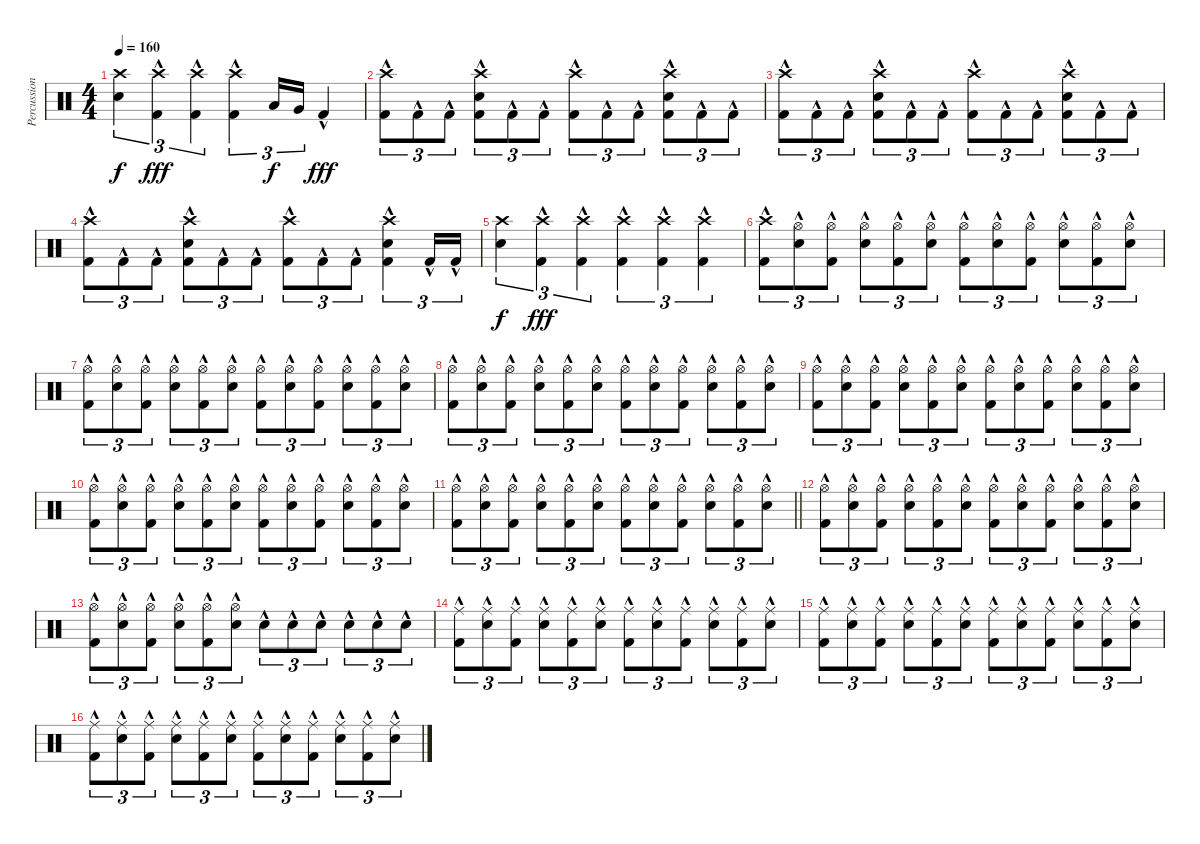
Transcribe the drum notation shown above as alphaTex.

\track ("Percussion" "Percussion") {instrument percussion}
\staff {score}
\articulation defaults
\ts (4 4)
\tempo 160
\clef neutral
\ks c
("Crash high (hit)" "Electric Snare (hit)").4{tu (3 2) dy f} ("Crash high (hit)" "Kick (hit) 2"{hac}).4{tu (3 2) dy fff} ("Crash high (hit)" "Kick (hit) 2"{hac}).4{tu (3 2)} ("Crash high (hit)" "Kick (hit) 2"{hac}).4{tu (3 2)} "Low Tom (hit)".16{tu (3 2) dy f} "Very Low Tom (hit)".16{tu (3 2)} "Kick (hit) 2"{hac}.4{dy fff} |
("Crash high (hit)" "Kick (hit) 2"{hac}).8{tu (3 2)} "Kick (hit) 2"{hac}.8{tu (3 2)} "Kick (hit) 2"{hac}.8{tu (3 2)} ("Crash high (hit)" "Electric Snare (hit)" "Kick (hit) 2"{hac}).8{tu (3 2)} "Kick (hit) 2"{hac}.8{tu (3 2)} "Kick (hit) 2"{hac}.8{tu (3 2)} ("Crash high (hit)" "Kick (hit) 2"{hac}).8{tu (3 2)} "Kick (hit) 2"{hac}.8{tu (3 2)} "Kick (hit) 2"{hac}.8{tu (3 2)} ("Crash high (hit)" "Electric Snare (hit)" "Kick (hit) 2"{hac}).8{tu (3 2)} "Kick (hit) 2"{hac}.8{tu (3 2)} "Kick (hit) 2"{hac}.8{tu (3 2)} |
("Crash high (hit)" "Kick (hit) 2"{hac}).8{tu (3 2)} "Kick (hit) 2"{hac}.8{tu (3 2)} "Kick (hit) 2"{hac}.8{tu (3 2)} ("Crash high (hit)" "Electric Snare (hit)" "Kick (hit) 2"{hac}).8{tu (3 2)} "Kick (hit) 2"{hac}.8{tu (3 2)} "Kick (hit) 2"{hac}.8{tu (3 2)} ("Crash high (hit)" "Kick (hit) 2"{hac}).8{tu (3 2)} "Kick (hit) 2"{hac}.8{tu (3 2)} "Kick (hit) 2"{hac}.8{tu (3 2)} ("Crash high (hit)" "Electric Snare (hit)" "Kick (hit) 2"{hac}).8{tu (3 2)} "Kick (hit) 2"{hac}.8{tu (3 2)} "Kick (hit) 2"{hac}.8{tu (3 2)} |
("Crash high (hit)" "Kick (hit) 2"{hac}).8{tu (3 2)} "Kick (hit) 2"{hac}.8{tu (3 2)} "Kick (hit) 2"{hac}.8{tu (3 2)} ("Crash high (hit)" "Electric Snare (hit)" "Kick (hit) 2"{hac}).8{tu (3 2)} "Kick (hit) 2"{hac}.8{tu (3 2)} "Kick (hit) 2"{hac}.8{tu (3 2)} ("Crash high (hit)" "Kick (hit) 2"{hac}).8{tu (3 2)} "Kick (hit) 2"{hac}.8{tu (3 2)} "Kick (hit) 2"{hac}.8{tu (3 2)} ("Crash high (hit)" "Electric Snare (hit)" "Kick (hit) 2"{hac}).4{tu (3 2)} "Kick (hit) 2"{hac}.16{tu (3 2)} "Kick (hit) 2"{hac}.16{tu (3 2)} |
("Crash high (hit)" "Electric Snare (hit)").4{tu (3 2) dy f} ("Crash high (hit)" "Kick (hit) 2"{hac}).4{tu (3 2) dy fff} ("Crash high (hit)" "Kick (hit) 2"{hac}).4{tu (3 2)} ("Crash high (hit)" "Kick (hit) 2"{hac}).4{tu (3 2)} ("Crash high (hit)" "Kick (hit) 2"{hac}).4{tu (3 2)} ("Crash high (hit)" "Kick (hit) 2"{hac}).4{tu (3 2)} |
("Crash high (hit)" "Kick (hit) 2"{hac}).8{tu (3 2)} ("Hi-Hat (open)" "Electric Snare (hit)"{hac}).8{tu (3 2)} ("Hi-Hat (open)" "Kick (hit) 2"{hac}).8{tu (3 2)} ("Hi-Hat (open)" "Electric Snare (hit)"{hac}).8{tu (3 2)} ("Hi-Hat (open)" "Kick (hit) 2"{hac}).8{tu (3 2)} ("Hi-Hat (open)" "Electric Snare (hit)"{hac}).8{tu (3 2)} ("Hi-Hat (open)" "Kick (hit) 2"{hac}).8{tu (3 2)} ("Hi-Hat (open)" "Electric Snare (hit)"{hac}).8{tu (3 2)} ("Hi-Hat (open)" "Kick (hit) 2"{hac}).8{tu (3 2)} ("Hi-Hat (open)" "Electric Snare (hit)"{hac}).8{tu (3 2)} ("Hi-Hat (open)" "Kick (hit) 2"{hac}).8{tu (3 2)} ("Hi-Hat (open)" "Electric Snare (hit)"{hac}).8{tu (3 2)} |
("Hi-Hat (open)" "Kick (hit) 2"{hac}).8{tu (3 2)} ("Hi-Hat (open)" "Electric Snare (hit)"{hac}).8{tu (3 2)} ("Hi-Hat (open)" "Kick (hit) 2"{hac}).8{tu (3 2)} ("Hi-Hat (open)" "Electric Snare (hit)"{hac}).8{tu (3 2)} ("Hi-Hat (open)" "Kick (hit) 2"{hac}).8{tu (3 2)} ("Hi-Hat (open)" "Electric Snare (hit)"{hac}).8{tu (3 2)} ("Hi-Hat (open)" "Kick (hit) 2"{hac}).8{tu (3 2)} ("Hi-Hat (open)" "Electric Snare (hit)"{hac}).8{tu (3 2)} ("Hi-Hat (open)" "Kick (hit) 2"{hac}).8{tu (3 2)} ("Hi-Hat (open)" "Electric Snare (hit)"{hac}).8{tu (3 2)} ("Hi-Hat (open)" "Kick (hit) 2"{hac}).8{tu (3 2)} ("Hi-Hat (open)" "Electric Snare (hit)"{hac}).8{tu (3 2)} |
("Hi-Hat (open)" "Kick (hit) 2"{hac}).8{tu (3 2)} ("Hi-Hat (open)" "Electric Snare (hit)"{hac}).8{tu (3 2)} ("Hi-Hat (open)" "Kick (hit) 2"{hac}).8{tu (3 2)} ("Hi-Hat (open)" "Electric Snare (hit)"{hac}).8{tu (3 2)} ("Hi-Hat (open)" "Kick (hit) 2"{hac}).8{tu (3 2)} ("Hi-Hat (open)" "Electric Snare (hit)"{hac}).8{tu (3 2)} ("Hi-Hat (open)" "Kick (hit) 2"{hac}).8{tu (3 2)} ("Hi-Hat (open)" "Electric Snare (hit)"{hac}).8{tu (3 2)} ("Hi-Hat (open)" "Kick (hit) 2"{hac}).8{tu (3 2)} ("Hi-Hat (open)" "Electric Snare (hit)"{hac}).8{tu (3 2)} ("Hi-Hat (open)" "Kick (hit) 2"{hac}).8{tu (3 2)} ("Hi-Hat (open)" "Electric Snare (hit)"{hac}).8{tu (3 2)} |
("Hi-Hat (open)" "Kick (hit) 2"{hac}).8{tu (3 2)} ("Hi-Hat (open)" "Electric Snare (hit)"{hac}).8{tu (3 2)} ("Hi-Hat (open)" "Kick (hit) 2"{hac}).8{tu (3 2)} ("Hi-Hat (open)" "Electric Snare (hit)"{hac}).8{tu (3 2)} ("Hi-Hat (open)" "Kick (hit) 2"{hac}).8{tu (3 2)} ("Hi-Hat (open)" "Electric Snare (hit)"{hac}).8{tu (3 2)} ("Hi-Hat (open)" "Kick (hit) 2"{hac}).8{tu (3 2)} ("Hi-Hat (open)" "Electric Snare (hit)"{hac}).8{tu (3 2)} ("Hi-Hat (open)" "Kick (hit) 2"{hac}).8{tu (3 2)} ("Hi-Hat (open)" "Electric Snare (hit)"{hac}).8{tu (3 2)} ("Hi-Hat (open)" "Kick (hit) 2"{hac}).8{tu (3 2)} ("Hi-Hat (open)" "Electric Snare (hit)"{hac}).8{tu (3 2)} |
("Hi-Hat (open)" "Kick (hit) 2"{hac}).8{tu (3 2)} ("Hi-Hat (open)" "Electric Snare (hit)"{hac}).8{tu (3 2)} ("Hi-Hat (open)" "Kick (hit) 2"{hac}).8{tu (3 2)} ("Hi-Hat (open)" "Electric Snare (hit)"{hac}).8{tu (3 2)} ("Hi-Hat (open)" "Kick (hit) 2"{hac}).8{tu (3 2)} ("Hi-Hat (open)" "Electric Snare (hit)"{hac}).8{tu (3 2)} ("Hi-Hat (open)" "Kick (hit) 2"{hac}).8{tu (3 2)} ("Hi-Hat (open)" "Electric Snare (hit)"{hac}).8{tu (3 2)} ("Hi-Hat (open)" "Kick (hit) 2"{hac}).8{tu (3 2)} ("Hi-Hat (open)" "Electric Snare (hit)"{hac}).8{tu (3 2)} ("Hi-Hat (open)" "Kick (hit) 2"{hac}).8{tu (3 2)} ("Hi-Hat (open)" "Electric Snare (hit)"{hac}).8{tu (3 2)} |
\barLineRight lightlight
("Hi-Hat (open)" "Kick (hit) 2"{hac}).8{tu (3 2)} ("Hi-Hat (open)" "Electric Snare (hit)"{hac}).8{tu (3 2)} ("Hi-Hat (open)" "Kick (hit) 2"{hac}).8{tu (3 2)} ("Hi-Hat (open)" "Electric Snare (hit)"{hac}).8{tu (3 2)} ("Hi-Hat (open)" "Kick (hit) 2"{hac}).8{tu (3 2)} ("Hi-Hat (open)" "Electric Snare (hit)"{hac}).8{tu (3 2)} ("Hi-Hat (open)" "Kick (hit) 2"{hac}).8{tu (3 2)} ("Hi-Hat (open)" "Electric Snare (hit)"{hac}).8{tu (3 2)} ("Hi-Hat (open)" "Kick (hit) 2"{hac}).8{tu (3 2)} ("Hi-Hat (open)" "Electric Snare (hit)"{hac}).8{tu (3 2)} ("Hi-Hat (open)" "Kick (hit) 2"{hac}).8{tu (3 2)} ("Hi-Hat (open)" "Electric Snare (hit)"{hac}).8{tu (3 2)} |
("Hi-Hat (open)" "Kick (hit) 2"{hac}).8{tu (3 2)} ("Hi-Hat (open)" "Electric Snare (hit)"{hac}).8{tu (3 2)} ("Hi-Hat (open)" "Kick (hit) 2"{hac}).8{tu (3 2)} ("Hi-Hat (open)" "Electric Snare (hit)"{hac}).8{tu (3 2)} ("Hi-Hat (open)" "Kick (hit) 2"{hac}).8{tu (3 2)} ("Hi-Hat (open)" "Electric Snare (hit)"{hac}).8{tu (3 2)} ("Hi-Hat (open)" "Kick (hit) 2"{hac}).8{tu (3 2)} ("Hi-Hat (open)" "Electric Snare (hit)"{hac}).8{tu (3 2)} ("Hi-Hat (open)" "Kick (hit) 2"{hac}).8{tu (3 2)} ("Hi-Hat (open)" "Electric Snare (hit)"{hac}).8{tu (3 2)} ("Hi-Hat (open)" "Kick (hit) 2"{hac}).8{tu (3 2)} ("Hi-Hat (open)" "Electric Snare (hit)"{hac}).8{tu (3 2)} |
("Hi-Hat (open)" "Kick (hit) 2"{hac}).8{tu (3 2)} ("Hi-Hat (open)" "Electric Snare (hit)"{hac}).8{tu (3 2)} ("Hi-Hat (open)" "Kick (hit) 2"{hac}).8{tu (3 2)} ("Hi-Hat (open)" "Electric Snare (hit)"{hac}).8{tu (3 2)} ("Hi-Hat (open)" "Kick (hit) 2"{hac}).8{tu (3 2)} ("Hi-Hat (open)" "Electric Snare (hit)"{hac}).8{tu (3 2)} "Electric Snare (hit)"{hac}.8{tu (3 2)} "Electric Snare (hit)"{hac}.8{tu (3 2)} "Electric Snare (hit)"{hac}.8{tu (3 2)} "Electric Snare (hit)"{hac}.8{tu (3 2)} "Electric Snare (hit)"{hac}.8{tu (3 2)} "Electric Snare (hit)"{hac}.8{tu (3 2)} |
("Ride (middle)" "Kick (hit) 2"{hac}).8{tu (3 2)} ("Ride (middle)" "Electric Snare (hit)"{hac}).8{tu (3 2)} ("Ride (middle)" "Kick (hit) 2"{hac}).8{tu (3 2)} ("Ride (middle)" "Electric Snare (hit)"{hac}).8{tu (3 2)} ("Ride (middle)" "Kick (hit) 2"{hac}).8{tu (3 2)} ("Ride (middle)" "Electric Snare (hit)"{hac}).8{tu (3 2)} ("Ride (middle)" "Kick (hit) 2"{hac}).8{tu (3 2)} ("Ride (middle)" "Electric Snare (hit)"{hac}).8{tu (3 2)} ("Ride (middle)" "Kick (hit) 2"{hac}).8{tu (3 2)} ("Ride (middle)" "Electric Snare (hit)"{hac}).8{tu (3 2)} ("Ride (middle)" "Kick (hit) 2"{hac}).8{tu (3 2)} ("Ride (middle)" "Electric Snare (hit)"{hac}).8{tu (3 2)} |
("Ride (middle)" "Kick (hit) 2"{hac}).8{tu (3 2)} ("Ride (middle)" "Electric Snare (hit)"{hac}).8{tu (3 2)} ("Ride (middle)" "Kick (hit) 2"{hac}).8{tu (3 2)} ("Ride (middle)" "Electric Snare (hit)"{hac}).8{tu (3 2)} ("Ride (middle)" "Kick (hit) 2"{hac}).8{tu (3 2)} ("Ride (middle)" "Electric Snare (hit)"{hac}).8{tu (3 2)} ("Ride (middle)" "Kick (hit) 2"{hac}).8{tu (3 2)} ("Ride (middle)" "Electric Snare (hit)"{hac}).8{tu (3 2)} ("Ride (middle)" "Kick (hit) 2"{hac}).8{tu (3 2)} ("Ride (middle)" "Electric Snare (hit)"{hac}).8{tu (3 2)} ("Ride (middle)" "Kick (hit) 2"{hac}).8{tu (3 2)} ("Ride (middle)" "Electric Snare (hit)"{hac}).8{tu (3 2)} |
("Ride (middle)" "Kick (hit) 2"{hac}).8{tu (3 2)} ("Ride (middle)" "Electric Snare (hit)"{hac}).8{tu (3 2)} ("Ride (middle)" "Kick (hit) 2"{hac}).8{tu (3 2)} ("Ride (middle)" "Electric Snare (hit)"{hac}).8{tu (3 2)} ("Ride (middle)" "Kick (hit) 2"{hac}).8{tu (3 2)} ("Ride (middle)" "Electric Snare (hit)"{hac}).8{tu (3 2)} ("Ride (middle)" "Kick (hit) 2"{hac}).8{tu (3 2)} ("Ride (middle)" "Electric Snare (hit)"{hac}).8{tu (3 2)} ("Ride (middle)" "Kick (hit) 2"{hac}).8{tu (3 2)} ("Ride (middle)" "Electric Snare (hit)"{hac}).8{tu (3 2)} ("Ride (middle)" "Kick (hit) 2"{hac}).8{tu (3 2)} ("Ride (middle)" "Electric Snare (hit)"{hac}).8{tu (3 2)}
